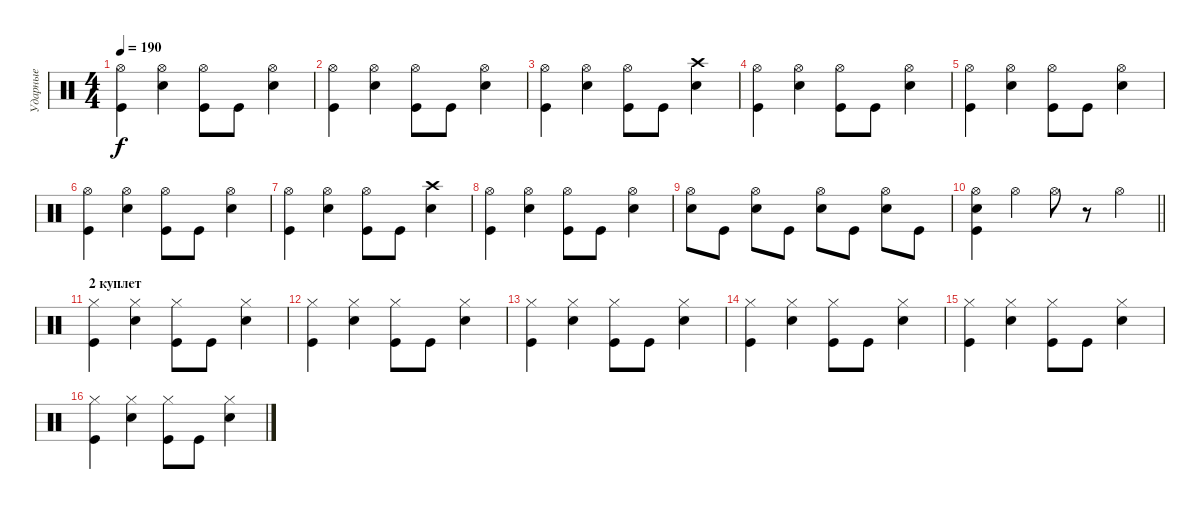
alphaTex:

\track ("Ударные" "Ударные") {instrument percussion}
\staff {score}
\articulation defaults
\ts (4 4)
\tempo 190
\clef neutral
\ks c
("Hi-Hat (open)" "Kick (hit)").4{dy f} ("Hi-Hat (open)" "Snare (hit) 2").4 ("Hi-Hat (open)" "Kick (hit)").8 "Kick (hit)".8 ("Hi-Hat (open)" "Snare (hit) 2").4 |
("Hi-Hat (open)" "Kick (hit)").4 ("Hi-Hat (open)" "Snare (hit) 2").4 ("Hi-Hat (open)" "Kick (hit)").8 "Kick (hit)".8 ("Hi-Hat (open)" "Snare (hit) 2").4 |
("Hi-Hat (open)" "Kick (hit)").4 ("Hi-Hat (open)" "Snare (hit) 2").4 ("Hi-Hat (open)" "Kick (hit)").8 "Kick (hit)".8 ("Crash high (hit)" "Snare (hit) 2").4 |
("Hi-Hat (open)" "Kick (hit)").4 ("Hi-Hat (open)" "Snare (hit) 2").4 ("Hi-Hat (open)" "Kick (hit)").8 "Kick (hit)".8 ("Hi-Hat (open)" "Snare (hit) 2").4 |
("Hi-Hat (open)" "Kick (hit)").4 ("Hi-Hat (open)" "Snare (hit) 2").4 ("Hi-Hat (open)" "Kick (hit)").8 "Kick (hit)".8 ("Hi-Hat (open)" "Snare (hit) 2").4 |
("Hi-Hat (open)" "Kick (hit)").4 ("Hi-Hat (open)" "Snare (hit) 2").4 ("Hi-Hat (open)" "Kick (hit)").8 "Kick (hit)".8 ("Hi-Hat (open)" "Snare (hit) 2").4 |
("Hi-Hat (open)" "Kick (hit)").4 ("Hi-Hat (open)" "Snare (hit) 2").4 ("Hi-Hat (open)" "Kick (hit)").8 "Kick (hit)".8 ("Crash high (hit)" "Snare (hit) 2").4 |
("Hi-Hat (open)" "Kick (hit)").4 ("Hi-Hat (open)" "Snare (hit) 2").4 ("Hi-Hat (open)" "Kick (hit)").8 "Kick (hit)".8 ("Hi-Hat (open)" "Snare (hit) 2").4 |
("Hi-Hat (open)" "Snare (hit) 2").8 "Kick (hit)".8 ("Hi-Hat (open)" "Snare (hit) 2").8 "Kick (hit)".8 ("Hi-Hat (open)" "Snare (hit) 2").8 "Kick (hit)".8 ("Hi-Hat (open)" "Snare (hit) 2").8 "Kick (hit)".8 |
\barLineRight lightlight
("Hi-Hat (open)" "Snare (hit) 2" "Kick (hit)").4 "Hi-Hat (open)".4 "Hi-Hat (open)".8 r.8 "Hi-Hat (open)".4 |
\section ("" "2 куплет")
("Hi-Hat (closed)" "Kick (hit)").4 ("Hi-Hat (closed)" "Snare (hit) 2").4 ("Hi-Hat (closed)" "Kick (hit)").8 "Kick (hit)".8 ("Hi-Hat (closed)" "Snare (hit) 2").4 |
("Hi-Hat (closed)" "Kick (hit)").4 ("Hi-Hat (closed)" "Snare (hit) 2").4 ("Hi-Hat (closed)" "Kick (hit)").8 "Kick (hit)".8 ("Hi-Hat (closed)" "Snare (hit) 2").4 |
("Hi-Hat (closed)" "Kick (hit)").4 ("Hi-Hat (closed)" "Snare (hit) 2").4 ("Hi-Hat (closed)" "Kick (hit)").8 "Kick (hit)".8 ("Hi-Hat (closed)" "Snare (hit) 2").4 |
("Hi-Hat (closed)" "Kick (hit)").4 ("Hi-Hat (closed)" "Snare (hit) 2").4 ("Hi-Hat (closed)" "Kick (hit)").8 "Kick (hit)".8 ("Hi-Hat (closed)" "Snare (hit) 2").4 |
("Hi-Hat (closed)" "Kick (hit)").4 ("Hi-Hat (closed)" "Snare (hit) 2").4 ("Hi-Hat (closed)" "Kick (hit)").8 "Kick (hit)".8 ("Hi-Hat (closed)" "Snare (hit) 2").4 |
("Hi-Hat (closed)" "Kick (hit)").4 ("Hi-Hat (closed)" "Snare (hit) 2").4 ("Hi-Hat (closed)" "Kick (hit)").8 "Kick (hit)".8 ("Hi-Hat (closed)" "Snare (hit) 2").4
